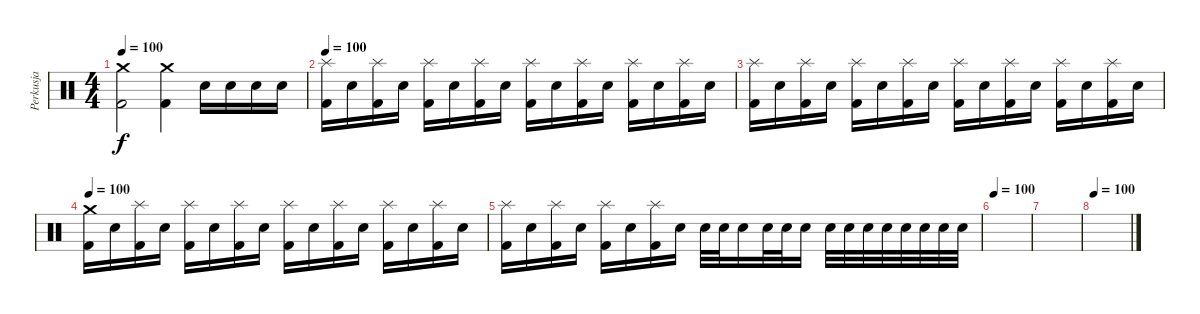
\track ("Perkusja" "Perkusja") {instrument percussion}
\staff {score}
\articulation defaults
\ts (4 4)
\tempo 100
\clef neutral
\ks c
("Crash medium (hit)" "Kick (hit) 2").2{dy f} ("Crash medium (hit)" "Kick (hit) 2").4 "Snare (hit) 2".16 "Snare (hit) 2".16 "Snare (hit) 2".16 "Snare (hit) 2".16 |
\tempo 100
("Splash (hit)" "Kick (hit) 2").16 "Snare (hit) 2".16 ("Splash (hit)" "Kick (hit) 2").16 "Snare (hit) 2".16 ("Splash (hit)" "Kick (hit) 2").16 "Snare (hit) 2".16 ("Splash (hit)" "Kick (hit) 2").16 "Snare (hit) 2".16 ("Splash (hit)" "Kick (hit) 2").16 "Snare (hit) 2".16 ("Splash (hit)" "Kick (hit) 2").16 "Snare (hit) 2".16 ("Splash (hit)" "Kick (hit) 2").16 "Snare (hit) 2".16 ("Splash (hit)" "Kick (hit) 2").16 "Snare (hit) 2".16 |
("Splash (hit)" "Kick (hit) 2").16 "Snare (hit) 2".16 ("Splash (hit)" "Kick (hit) 2").16 "Snare (hit) 2".16 ("Splash (hit)" "Kick (hit) 2").16 "Snare (hit) 2".16 ("Splash (hit)" "Kick (hit) 2").16 "Snare (hit) 2".16 ("Splash (hit)" "Kick (hit) 2").16 "Snare (hit) 2".16 ("Splash (hit)" "Kick (hit) 2").16 "Snare (hit) 2".16 ("Splash (hit)" "Kick (hit) 2").16 "Snare (hit) 2".16 ("Splash (hit)" "Kick (hit) 2").16 "Snare (hit) 2".16 |
\tempo 100
("Crash medium (hit)" "Kick (hit) 2").16 "Snare (hit) 2".16 ("Splash (hit)" "Kick (hit) 2").16 "Snare (hit) 2".16 ("Splash (hit)" "Kick (hit) 2").16 "Snare (hit) 2".16 ("Splash (hit)" "Kick (hit) 2").16 "Snare (hit) 2".16 ("Splash (hit)" "Kick (hit) 2").16 "Snare (hit) 2".16 ("Splash (hit)" "Kick (hit) 2").16 "Snare (hit) 2".16 ("Splash (hit)" "Kick (hit) 2").16 "Snare (hit) 2".16 ("Splash (hit)" "Kick (hit) 2").16 "Snare (hit) 2".16 |
("Splash (hit)" "Kick (hit) 2").16 "Snare (hit) 2".16 ("Splash (hit)" "Kick (hit) 2").16 "Snare (hit) 2".16 ("Splash (hit)" "Kick (hit) 2").16 "Snare (hit) 2".16 ("Splash (hit)" "Kick (hit) 2").16 "Snare (hit) 2".16 "Snare (hit) 2".32 "Snare (hit) 2".32 "Snare (hit) 2".16 "Snare (hit) 2".32 "Snare (hit) 2".32 "Snare (hit) 2".16 "Snare (hit) 2".32 "Snare (hit) 2".32 "Snare (hit) 2".32 "Snare (hit) 2".32 "Snare (hit) 2".32 "Snare (hit) 2".32 "Snare (hit) 2".32 "Snare (hit) 2".32 |
\tempo 100
|
|
\tempo 100
